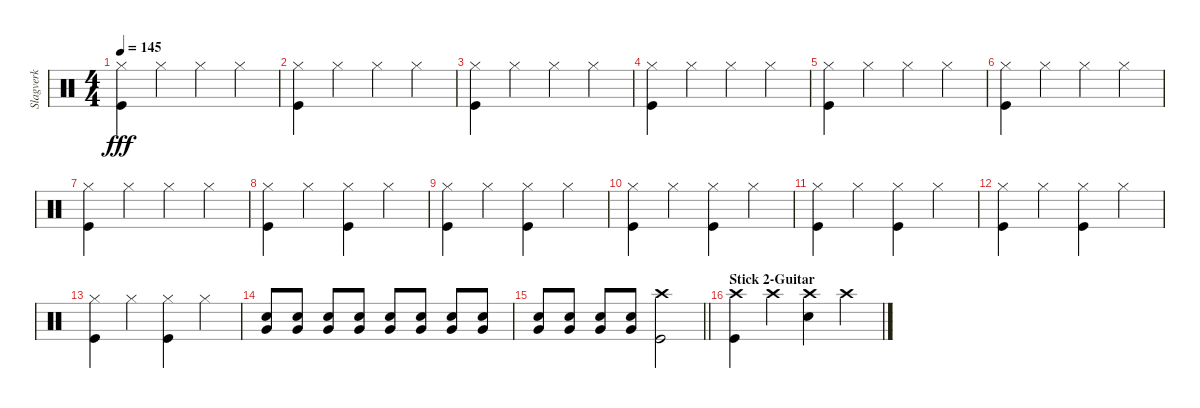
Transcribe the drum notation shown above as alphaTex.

\track ("Slagverk" "Slagverk") {instrument percussion}
\staff {score}
\articulation defaults
\ts (4 4)
\tempo 145
\clef neutral
\ks c
("Hi-Hat (closed)" "Kick (hit)").4{dy fff} "Hi-Hat (closed)".4 "Hi-Hat (closed)".4 "Hi-Hat (closed)".4 |
("Hi-Hat (closed)" "Kick (hit)").4 "Hi-Hat (closed)".4 "Hi-Hat (closed)".4 "Hi-Hat (closed)".4 |
("Hi-Hat (closed)" "Kick (hit)").4 "Hi-Hat (closed)".4 "Hi-Hat (closed)".4 "Hi-Hat (closed)".4 |
("Hi-Hat (closed)" "Kick (hit)").4 "Hi-Hat (closed)".4 "Hi-Hat (closed)".4 "Hi-Hat (closed)".4 |
("Hi-Hat (closed)" "Kick (hit)").4 "Hi-Hat (closed)".4 "Hi-Hat (closed)".4 "Hi-Hat (closed)".4 |
("Hi-Hat (closed)" "Kick (hit)").4 "Hi-Hat (closed)".4 "Hi-Hat (closed)".4 "Hi-Hat (closed)".4 |
("Hi-Hat (closed)" "Kick (hit)").4 "Hi-Hat (closed)".4 "Hi-Hat (closed)".4 "Hi-Hat (closed)".4 |
("Hi-Hat (closed)" "Kick (hit)").4 "Hi-Hat (closed)".4 ("Hi-Hat (closed)" "Kick (hit)").4 "Hi-Hat (closed)".4 |
("Hi-Hat (closed)" "Kick (hit)").4 "Hi-Hat (closed)".4 ("Hi-Hat (closed)" "Kick (hit)").4 "Hi-Hat (closed)".4 |
("Hi-Hat (closed)" "Kick (hit)").4 "Hi-Hat (closed)".4 ("Hi-Hat (closed)" "Kick (hit)").4 "Hi-Hat (closed)".4 |
("Hi-Hat (closed)" "Kick (hit)").4 "Hi-Hat (closed)".4 ("Hi-Hat (closed)" "Kick (hit)").4 "Hi-Hat (closed)".4 |
("Hi-Hat (closed)" "Kick (hit)").4 "Hi-Hat (closed)".4 ("Hi-Hat (closed)" "Kick (hit)").4 "Hi-Hat (closed)".4 |
("Hi-Hat (closed)" "Kick (hit)").4 "Hi-Hat (closed)".4 ("Hi-Hat (closed)" "Kick (hit)").4 "Hi-Hat (closed)".4 |
("Snare (hit) 2" "Very Low Tom (hit)").8{volume 3} ("Snare (hit) 2" "Very Low Tom (hit)").8{volume 16} ("Snare (hit) 2" "Very Low Tom (hit)").8 ("Snare (hit) 2" "Very Low Tom (hit)").8 ("Snare (hit) 2" "Very Low Tom (hit)").8 ("Snare (hit) 2" "Very Low Tom (hit)").8 ("Snare (hit) 2" "Very Low Tom (hit)").8 ("Snare (hit) 2" "Very Low Tom (hit)").8 |
\barLineRight lightlight
("Snare (hit) 2" "Very Low Tom (hit)").8 ("Snare (hit) 2" "Very Low Tom (hit)").8 ("Snare (hit) 2" "Very Low Tom (hit)").8 ("Snare (hit) 2" "Very Low Tom (hit)").8 ("Crash high (hit)" "Kick (hit)").2 |
\section ("" "Stick 2-Guitar")
("Crash high (hit)" "Kick (hit)").4 "Crash high (hit)".4 ("Crash high (hit)" "Snare (hit) 2").4 "Crash high (hit)".4
